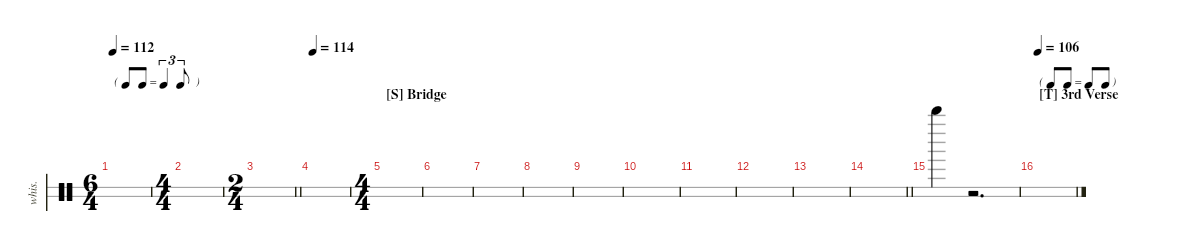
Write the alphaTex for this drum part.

\defaultSystemsLayout 4
\hideDynamics
\bracketExtendMode nobrackets
\track ("Whistle" "whis.") {instrument percussion}
\staff {score 2}
\articulation defaults
\ts (6 4)
\beaming (8 6 6)
\tf triplet8th
\tempo 112
\clef neutral
\ks c
|
\ts (4 4)
\beaming (8 2 2 2 2)
|
\ts (2 4)
\beaming (8 2 2)
\barLineRight lightlight
|
\tempo 114
|
\ts (4 4)
\beaming (8 2 2 2 2)
\section ("S" "Bridge")
|
|
|
|
|
|
|
|
|
\barLineRight lightlight
|
"Whistle high (hit)".4 r.2{d} |
\tf none
\section ("T" "3rd Verse")
\tempo 106
